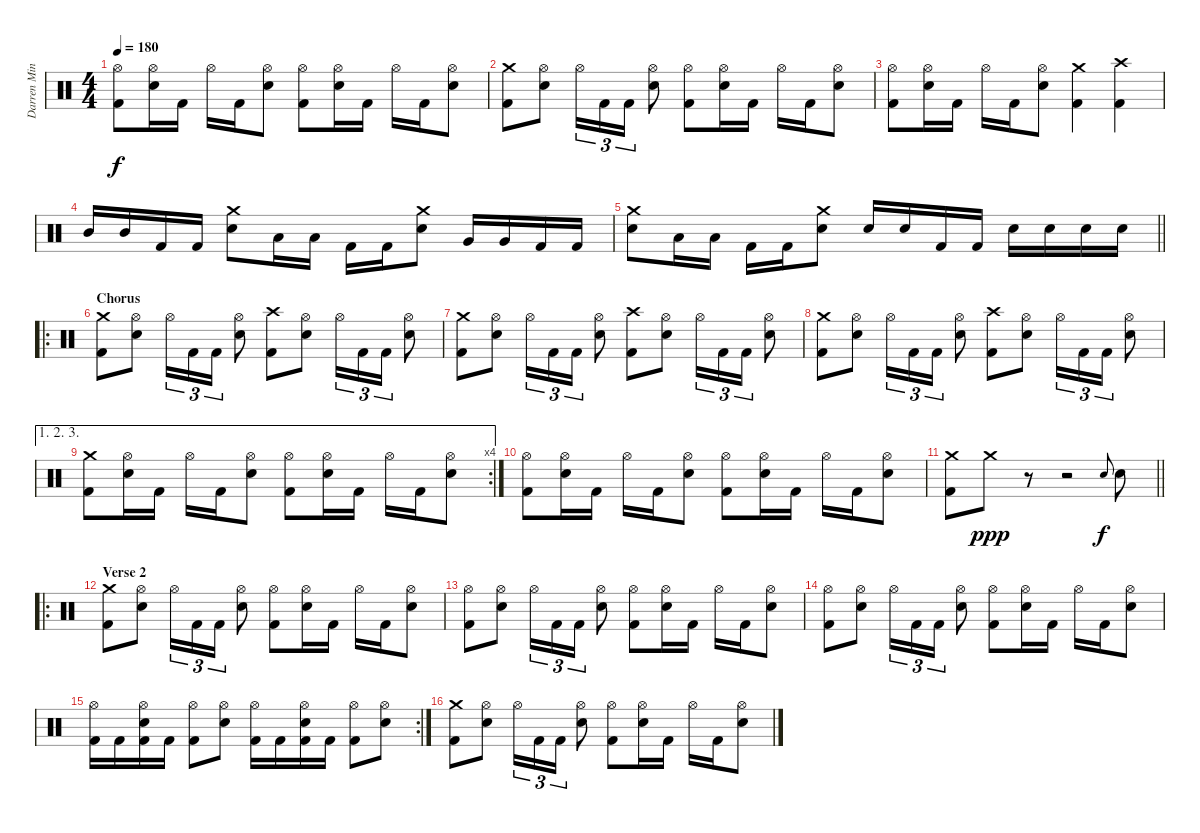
\track ("Darren Minter" "Darren Min") {instrument percussion}
\staff {score}
\articulation defaults
\ts (4 4)
\tempo 180
\clef neutral
\ks c
("Hi-Hat (open)" "Kick (hit) 2").8{dy f} ("Hi-Hat (open)" "Electric Snare (hit)").16 "Kick (hit) 2".16 "Hi-Hat (open)".16 "Kick (hit) 2".16 ("Hi-Hat (open)" "Electric Snare (hit)").8 ("Hi-Hat (open)" "Kick (hit) 2").8 ("Hi-Hat (open)" "Electric Snare (hit)").16 "Kick (hit) 2".16 "Hi-Hat (open)".16 "Kick (hit) 2".16 ("Hi-Hat (open)" "Electric Snare (hit)").8 |
("Crash medium (hit)" "Kick (hit) 2").8 ("Hi-Hat (open)" "Electric Snare (hit)").8 "Hi-Hat (open)".16{tu (3 2)} "Kick (hit) 2".16{tu (3 2)} "Kick (hit) 2".16{tu (3 2)} ("Hi-Hat (open)" "Electric Snare (hit)").8 ("Hi-Hat (open)" "Kick (hit) 2").8 ("Hi-Hat (open)" "Electric Snare (hit)").16 "Kick (hit) 2".16 "Hi-Hat (open)".16 "Kick (hit) 2".16 ("Hi-Hat (open)" "Electric Snare (hit)").8 |
("Hi-Hat (open)" "Kick (hit) 2").8 ("Hi-Hat (open)" "Electric Snare (hit)").16 "Kick (hit) 2".16 "Hi-Hat (open)".16 "Kick (hit) 2".16 ("Hi-Hat (open)" "Electric Snare (hit)").8 ("Crash medium (hit)" "Kick (hit) 2").4 ("Crash high (hit)" "Kick (hit) 2").4 |
"Mid Tom (hit)".16 "Mid Tom (hit)".16 "Kick (hit) 2".16 "Kick (hit) 2".16 ("Crash medium (hit)" "Electric Snare (hit)").8 "Low Tom (hit)".16 "Low Tom (hit)".16 "Kick (hit) 2".16 "Kick (hit) 2".16 ("Crash medium (hit)" "Electric Snare (hit)").8 "Very Low Tom (hit)".16 "Very Low Tom (hit)".16 "Kick (hit) 2".16 "Kick (hit) 2".16 |
\barLineRight lightlight
("Crash medium (hit)" "Electric Snare (hit)").8 "Low Floor Tom (hit)".16 "Low Floor Tom (hit)".16 "Kick (hit) 2".16 "Kick (hit) 2".16 ("Crash medium (hit)" "Electric Snare (hit)").8 "Electric Snare (hit)".16 "Electric Snare (hit)".16 "Kick (hit) 2".16 "Kick (hit) 2".16 "Electric Snare (hit)".16 "Electric Snare (hit)".16 "Electric Snare (hit)".16 "Electric Snare (hit)".16 |
\ro
\section ("" "Chorus")
("Crash medium (hit)" "Kick (hit) 2").8 ("Hi-Hat (open)" "Electric Snare (hit)").8 "Hi-Hat (open)".16{tu (3 2)} "Kick (hit) 2".16{tu (3 2)} "Kick (hit) 2".16{tu (3 2)} ("Hi-Hat (open)" "Electric Snare (hit)").8 ("Crash high (hit)" "Kick (hit) 2").8 ("Hi-Hat (open)" "Electric Snare (hit)").8 "Hi-Hat (open)".16{tu (3 2)} "Kick (hit) 2".16{tu (3 2)} "Kick (hit) 2".16{tu (3 2)} ("Hi-Hat (open)" "Electric Snare (hit)").8 |
("Crash medium (hit)" "Kick (hit) 2").8 ("Hi-Hat (open)" "Electric Snare (hit)").8 "Hi-Hat (open)".16{tu (3 2)} "Kick (hit) 2".16{tu (3 2)} "Kick (hit) 2".16{tu (3 2)} ("Hi-Hat (open)" "Electric Snare (hit)").8 ("Crash high (hit)" "Kick (hit) 2").8 ("Hi-Hat (open)" "Electric Snare (hit)").8 "Hi-Hat (open)".16{tu (3 2)} "Kick (hit) 2".16{tu (3 2)} "Kick (hit) 2".16{tu (3 2)} ("Hi-Hat (open)" "Electric Snare (hit)").8 |
("Crash medium (hit)" "Kick (hit) 2").8 ("Hi-Hat (open)" "Electric Snare (hit)").8 "Hi-Hat (open)".16{tu (3 2)} "Kick (hit) 2".16{tu (3 2)} "Kick (hit) 2".16{tu (3 2)} ("Hi-Hat (open)" "Electric Snare (hit)").8 ("Crash high (hit)" "Kick (hit) 2").8 ("Hi-Hat (open)" "Electric Snare (hit)").8 "Hi-Hat (open)".16{tu (3 2)} "Kick (hit) 2".16{tu (3 2)} "Kick (hit) 2".16{tu (3 2)} ("Hi-Hat (open)" "Electric Snare (hit)").8 |
\ae (1 2 3)
\rc 4
("Crash medium (hit)" "Kick (hit) 2").8 ("Hi-Hat (open)" "Electric Snare (hit)").16 "Kick (hit) 2".16 "Hi-Hat (open)".16 "Kick (hit) 2".16 ("Hi-Hat (open)" "Electric Snare (hit)").8 ("Hi-Hat (open)" "Kick (hit) 2").8 ("Hi-Hat (open)" "Electric Snare (hit)").16 "Kick (hit) 2".16 "Hi-Hat (open)".16 "Kick (hit) 2".16 ("Hi-Hat (open)" "Electric Snare (hit)").8 |
("Hi-Hat (open)" "Kick (hit) 2").8 ("Hi-Hat (open)" "Electric Snare (hit)").16 "Kick (hit) 2".16 "Hi-Hat (open)".16 "Kick (hit) 2".16 ("Hi-Hat (open)" "Electric Snare (hit)").8 ("Hi-Hat (open)" "Kick (hit) 2").8 ("Hi-Hat (open)" "Electric Snare (hit)").16 "Kick (hit) 2".16 "Hi-Hat (open)".16 "Kick (hit) 2".16 ("Hi-Hat (open)" "Electric Snare (hit)").8 |
\barLineRight lightlight
("Crash medium (hit)" "Kick (hit) 2").8 "Crash medium (hit)".8{dy ppp} r.8 r.2 "Electric Snare (hit)".8{gr onbeat dy f} "Electric Snare (hit)".8 |
\ro
\section ("" "Verse 2")
("Crash medium (hit)" "Kick (hit) 2").8 ("Hi-Hat (open)" "Electric Snare (hit)").8 "Hi-Hat (open)".16{tu (3 2)} "Kick (hit) 2".16{tu (3 2)} "Kick (hit) 2".16{tu (3 2)} ("Hi-Hat (open)" "Electric Snare (hit)").8 ("Hi-Hat (open)" "Kick (hit) 2").8 ("Hi-Hat (open)" "Electric Snare (hit)").16 "Kick (hit) 2".16 "Hi-Hat (open)".16 "Kick (hit) 2".16 ("Hi-Hat (open)" "Electric Snare (hit)").8 |
("Hi-Hat (open)" "Kick (hit) 2").8 ("Hi-Hat (open)" "Electric Snare (hit)").8 "Hi-Hat (open)".16{tu (3 2)} "Kick (hit) 2".16{tu (3 2)} "Kick (hit) 2".16{tu (3 2)} ("Hi-Hat (open)" "Electric Snare (hit)").8 ("Hi-Hat (open)" "Kick (hit) 2").8 ("Hi-Hat (open)" "Electric Snare (hit)").16 "Kick (hit) 2".16 "Hi-Hat (open)".16 "Kick (hit) 2".16 ("Hi-Hat (open)" "Electric Snare (hit)").8 |
("Hi-Hat (open)" "Kick (hit) 2").8 ("Hi-Hat (open)" "Electric Snare (hit)").8 "Hi-Hat (open)".16{tu (3 2)} "Kick (hit) 2".16{tu (3 2)} "Kick (hit) 2".16{tu (3 2)} ("Hi-Hat (open)" "Electric Snare (hit)").8 ("Hi-Hat (open)" "Kick (hit) 2").8 ("Hi-Hat (open)" "Electric Snare (hit)").16 "Kick (hit) 2".16 "Hi-Hat (open)".16 "Kick (hit) 2".16 ("Hi-Hat (open)" "Electric Snare (hit)").8 |
\rc 2
("Hi-Hat (open)" "Kick (hit) 2").16 "Kick (hit) 2".16 ("Hi-Hat (open)" "Electric Snare (hit)" "Kick (hit) 2").16 "Kick (hit) 2".16 ("Hi-Hat (open)" "Kick (hit) 2").8 ("Hi-Hat (open)" "Electric Snare (hit)").8 ("Hi-Hat (open)" "Kick (hit) 2").16 "Kick (hit) 2".16 ("Hi-Hat (open)" "Electric Snare (hit)" "Kick (hit) 2").16 "Kick (hit) 2".16 ("Hi-Hat (open)" "Kick (hit) 2").8 ("Hi-Hat (open)" "Electric Snare (hit)").8 |
("Crash medium (hit)" "Kick (hit) 2").8 ("Hi-Hat (open)" "Electric Snare (hit)").8 "Hi-Hat (open)".16{tu (3 2)} "Kick (hit) 2".16{tu (3 2)} "Kick (hit) 2".16{tu (3 2)} ("Hi-Hat (open)" "Electric Snare (hit)").8 ("Hi-Hat (open)" "Kick (hit) 2").8 ("Hi-Hat (open)" "Electric Snare (hit)").16 "Kick (hit) 2".16 "Hi-Hat (open)".16 "Kick (hit) 2".16 ("Hi-Hat (open)" "Electric Snare (hit)").8
